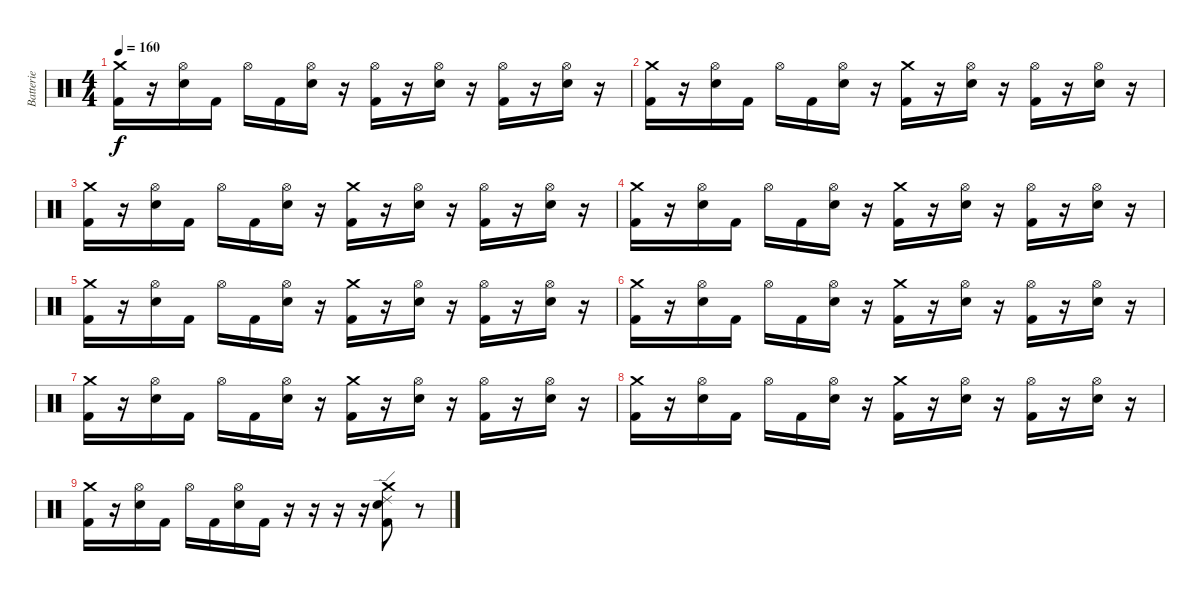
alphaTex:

\track ("Batterie" "Batterie") {instrument percussion}
\staff {score}
\articulation defaults
\ts (4 4)
\tempo 160
\clef neutral
\ks c
("Crash medium (hit)" "Kick (hit) 2").16{dy f} r.16 ("Hi-Hat (open)" "Electric Snare (hit)").16 "Kick (hit) 2".16 "Hi-Hat (open)".16 "Kick (hit) 2".16 ("Hi-Hat (open)" "Electric Snare (hit)").16 r.16 ("Hi-Hat (open)" "Kick (hit) 2").16 r.16 ("Hi-Hat (open)" "Electric Snare (hit)").16 r.16 ("Hi-Hat (open)" "Kick (hit) 2").16 r.16 ("Hi-Hat (open)" "Electric Snare (hit)").16 r.16 |
("Crash medium (hit)" "Kick (hit) 2").16 r.16 ("Hi-Hat (open)" "Electric Snare (hit)").16 "Kick (hit) 2".16 "Hi-Hat (open)".16 "Kick (hit) 2".16 ("Hi-Hat (open)" "Electric Snare (hit)").16 r.16 ("Crash medium (hit)" "Kick (hit) 2").16 r.16 ("Hi-Hat (open)" "Electric Snare (hit)").16 r.16 ("Hi-Hat (open)" "Kick (hit) 2").16 r.16 ("Hi-Hat (open)" "Electric Snare (hit)").16 r.16 |
("Crash medium (hit)" "Kick (hit) 2").16 r.16 ("Hi-Hat (open)" "Electric Snare (hit)").16 "Kick (hit) 2".16 "Hi-Hat (open)".16 "Kick (hit) 2".16 ("Hi-Hat (open)" "Electric Snare (hit)").16 r.16 ("Crash medium (hit)" "Kick (hit) 2").16 r.16 ("Hi-Hat (open)" "Electric Snare (hit)").16 r.16 ("Hi-Hat (open)" "Kick (hit) 2").16 r.16 ("Hi-Hat (open)" "Electric Snare (hit)").16 r.16 |
("Crash medium (hit)" "Kick (hit) 2").16 r.16 ("Hi-Hat (open)" "Electric Snare (hit)").16 "Kick (hit) 2".16 "Hi-Hat (open)".16 "Kick (hit) 2".16 ("Hi-Hat (open)" "Electric Snare (hit)").16 r.16 ("Crash medium (hit)" "Kick (hit) 2").16 r.16 ("Hi-Hat (open)" "Electric Snare (hit)").16 r.16 ("Hi-Hat (open)" "Kick (hit) 2").16 r.16 ("Hi-Hat (open)" "Electric Snare (hit)").16 r.16 |
("Crash medium (hit)" "Kick (hit) 2").16 r.16 ("Hi-Hat (open)" "Electric Snare (hit)").16 "Kick (hit) 2".16 "Hi-Hat (open)".16 "Kick (hit) 2".16 ("Hi-Hat (open)" "Electric Snare (hit)").16 r.16 ("Crash medium (hit)" "Kick (hit) 2").16 r.16 ("Hi-Hat (open)" "Electric Snare (hit)").16 r.16 ("Hi-Hat (open)" "Kick (hit) 2").16 r.16 ("Hi-Hat (open)" "Electric Snare (hit)").16 r.16 |
("Crash medium (hit)" "Kick (hit) 2").16 r.16 ("Hi-Hat (open)" "Electric Snare (hit)").16 "Kick (hit) 2".16 "Hi-Hat (open)".16 "Kick (hit) 2".16 ("Hi-Hat (open)" "Electric Snare (hit)").16 r.16 ("Crash medium (hit)" "Kick (hit) 2").16 r.16 ("Hi-Hat (open)" "Electric Snare (hit)").16 r.16 ("Hi-Hat (open)" "Kick (hit) 2").16 r.16 ("Hi-Hat (open)" "Electric Snare (hit)").16 r.16 |
("Crash medium (hit)" "Kick (hit) 2").16 r.16 ("Hi-Hat (open)" "Electric Snare (hit)").16 "Kick (hit) 2".16 "Hi-Hat (open)".16 "Kick (hit) 2".16 ("Hi-Hat (open)" "Electric Snare (hit)").16 r.16 ("Crash medium (hit)" "Kick (hit) 2").16 r.16 ("Hi-Hat (open)" "Electric Snare (hit)").16 r.16 ("Hi-Hat (open)" "Kick (hit) 2").16 r.16 ("Hi-Hat (open)" "Electric Snare (hit)").16 r.16 |
("Crash medium (hit)" "Kick (hit) 2").16 r.16 ("Hi-Hat (open)" "Electric Snare (hit)").16 "Kick (hit) 2".16 "Hi-Hat (open)".16 "Kick (hit) 2".16 ("Hi-Hat (open)" "Electric Snare (hit)").16 r.16 ("Crash medium (hit)" "Kick (hit) 2").16 r.16 ("Hi-Hat (open)" "Electric Snare (hit)").16 r.16 ("Hi-Hat (open)" "Kick (hit) 2").16 r.16 ("Hi-Hat (open)" "Electric Snare (hit)").16 r.16 |
("Crash medium (hit)" "Kick (hit) 2").16 r.16 ("Hi-Hat (open)" "Electric Snare (hit)").16 "Kick (hit) 2".16 "Hi-Hat (open)".16 "Kick (hit) 2".16 ("Hi-Hat (open)" "Electric Snare (hit)").16 "Kick (hit) 2".16 r.16 r.16 r.16 r.16 ("Crash medium (hit)" "Ride (edge) 2" "Kick (hit) 2" "Electric Snare (hit)").8 r.8
